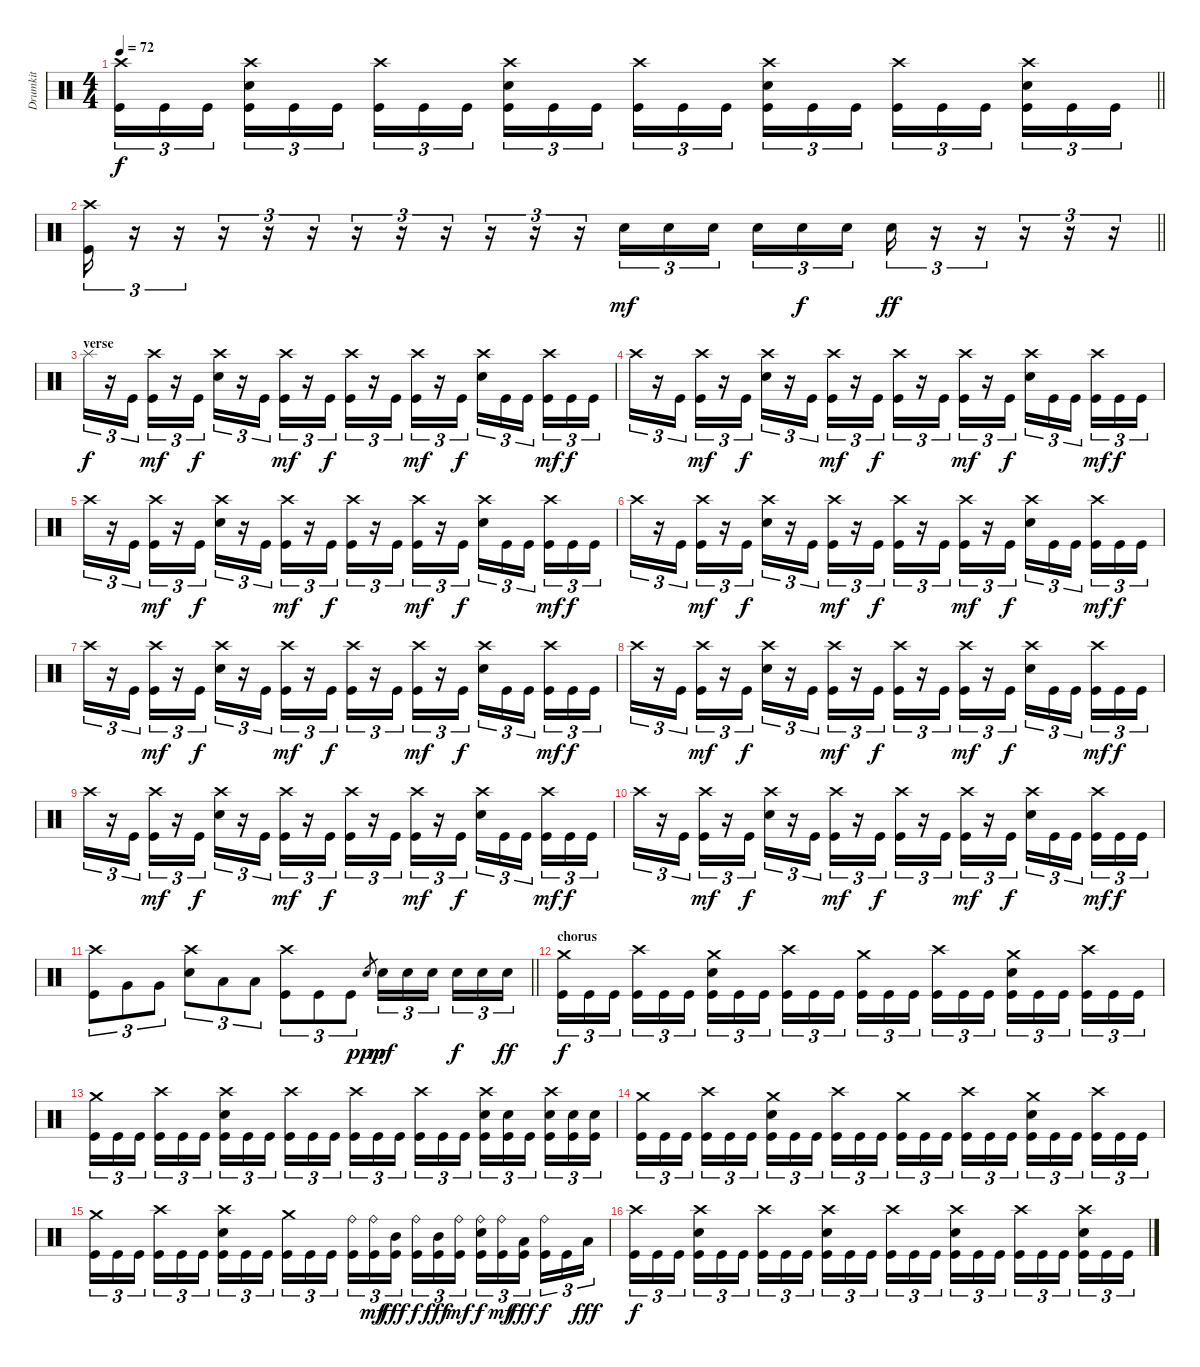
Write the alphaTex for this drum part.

\track ("Drumkit" "Drumkit") {instrument percussion}
\staff
\articulation defaults
\ts (4 4)
\tempo 72
\clef neutral
\barLineRight lightlight
\ks c
("Crash high (hit)" "Kick (hit)").16{tu (3 2) dy f} "Kick (hit)".16{tu (3 2)} "Kick (hit)".16{tu (3 2) beam splitsecondary} ("Crash high (hit)" "Snare (hit) 2" "Kick (hit)").16{tu (3 2)} "Kick (hit)".16{tu (3 2)} "Kick (hit)".16{tu (3 2)} ("Crash high (hit)" "Kick (hit)").16{tu (3 2)} "Kick (hit)".16{tu (3 2)} "Kick (hit)".16{tu (3 2) beam splitsecondary} ("Crash high (hit)" "Snare (hit) 2" "Kick (hit)").16{tu (3 2)} "Kick (hit)".16{tu (3 2)} "Kick (hit)".16{tu (3 2)} ("Crash high (hit)" "Kick (hit)").16{tu (3 2)} "Kick (hit)".16{tu (3 2)} "Kick (hit)".16{tu (3 2) beam splitsecondary} ("Crash high (hit)" "Snare (hit) 2" "Kick (hit)").16{tu (3 2)} "Kick (hit)".16{tu (3 2)} "Kick (hit)".16{tu (3 2)} ("Crash high (hit)" "Kick (hit)").16{tu (3 2)} "Kick (hit)".16{tu (3 2)} "Kick (hit)".16{tu (3 2) beam splitsecondary} ("Crash high (hit)" "Snare (hit) 2" "Kick (hit)").16{tu (3 2)} "Kick (hit)".16{tu (3 2)} "Kick (hit)".16{tu (3 2)} |
\barLineRight lightlight
("Crash high (hit)" "Kick (hit)").16{tu (3 2)} r.16{tu (3 2)} r.16{tu (3 2)} r.16{tu (3 2)} r.16{tu (3 2)} r.16{tu (3 2)} r.16{tu (3 2)} r.16{tu (3 2)} r.16{tu (3 2)} r.16{tu (3 2)} r.16{tu (3 2)} r.16{tu (3 2)} "Snare (hit) 2".16{tu (3 2) dy mf} "Snare (hit) 2".16{tu (3 2)} "Snare (hit) 2".16{tu (3 2) beam splitsecondary} "Snare (hit) 2".16{tu (3 2)} "Snare (hit) 2".16{tu (3 2) dy f} "Snare (hit) 2".16{tu (3 2)} "Snare (hit) 2".16{tu (3 2) dy ff} r.16{tu (3 2)} r.16{tu (3 2)} r.16{tu (3 2)} r.16{tu (3 2)} r.16{tu (3 2)} |
\section ("" "verse")
"Splash (hit)".16{tu (3 2) dy f} r.16{tu (3 2)} "Kick (hit)".16{tu (3 2)} ("Crash high (hit)" "Kick (hit)").16{tu (3 2) dy mf} r.16{tu (3 2)} "Kick (hit)".16{tu (3 2) dy f} ("Crash high (hit)" "Snare (hit) 2").16{tu (3 2)} r.16{tu (3 2)} "Kick (hit)".16{tu (3 2)} ("Crash high (hit)" "Kick (hit)").16{tu (3 2) dy mf} r.16{tu (3 2)} "Kick (hit)".16{tu (3 2) dy f} ("Crash high (hit)" "Kick (hit)").16{tu (3 2)} r.16{tu (3 2)} "Kick (hit)".16{tu (3 2)} ("Crash high (hit)" "Kick (hit)").16{tu (3 2) dy mf} r.16{tu (3 2)} "Kick (hit)".16{tu (3 2) dy f} ("Crash high (hit)" "Snare (hit) 2").16{tu (3 2)} "Kick (hit)".16{tu (3 2)} "Kick (hit)".16{tu (3 2) beam splitsecondary} ("Crash high (hit)" "Kick (hit)").16{tu (3 2) dy mf} "Kick (hit)".16{tu (3 2) dy f} "Kick (hit)".16{tu (3 2)} |
"Crash high (hit)".16{tu (3 2)} r.16{tu (3 2)} "Kick (hit)".16{tu (3 2)} ("Crash high (hit)" "Kick (hit)").16{tu (3 2) dy mf} r.16{tu (3 2)} "Kick (hit)".16{tu (3 2) dy f} ("Crash high (hit)" "Snare (hit) 2").16{tu (3 2)} r.16{tu (3 2)} "Kick (hit)".16{tu (3 2)} ("Crash high (hit)" "Kick (hit)").16{tu (3 2) dy mf} r.16{tu (3 2)} "Kick (hit)".16{tu (3 2) dy f} ("Crash high (hit)" "Kick (hit)").16{tu (3 2)} r.16{tu (3 2)} "Kick (hit)".16{tu (3 2)} ("Crash high (hit)" "Kick (hit)").16{tu (3 2) dy mf} r.16{tu (3 2)} "Kick (hit)".16{tu (3 2) dy f} ("Crash high (hit)" "Snare (hit) 2").16{tu (3 2)} "Kick (hit)".16{tu (3 2)} "Kick (hit)".16{tu (3 2) beam splitsecondary} ("Crash high (hit)" "Kick (hit)").16{tu (3 2) dy mf} "Kick (hit)".16{tu (3 2) dy f} "Kick (hit)".16{tu (3 2)} |
"Crash high (hit)".16{tu (3 2)} r.16{tu (3 2)} "Kick (hit)".16{tu (3 2)} ("Crash high (hit)" "Kick (hit)").16{tu (3 2) dy mf} r.16{tu (3 2)} "Kick (hit)".16{tu (3 2) dy f} ("Crash high (hit)" "Snare (hit) 2").16{tu (3 2)} r.16{tu (3 2)} "Kick (hit)".16{tu (3 2)} ("Crash high (hit)" "Kick (hit)").16{tu (3 2) dy mf} r.16{tu (3 2)} "Kick (hit)".16{tu (3 2) dy f} ("Crash high (hit)" "Kick (hit)").16{tu (3 2)} r.16{tu (3 2)} "Kick (hit)".16{tu (3 2)} ("Crash high (hit)" "Kick (hit)").16{tu (3 2) dy mf} r.16{tu (3 2)} "Kick (hit)".16{tu (3 2) dy f} ("Crash high (hit)" "Snare (hit) 2").16{tu (3 2)} "Kick (hit)".16{tu (3 2)} "Kick (hit)".16{tu (3 2) beam splitsecondary} ("Crash high (hit)" "Kick (hit)").16{tu (3 2) dy mf} "Kick (hit)".16{tu (3 2) dy f} "Kick (hit)".16{tu (3 2)} |
"Crash high (hit)".16{tu (3 2)} r.16{tu (3 2)} "Kick (hit)".16{tu (3 2)} ("Crash high (hit)" "Kick (hit)").16{tu (3 2) dy mf} r.16{tu (3 2)} "Kick (hit)".16{tu (3 2) dy f} ("Crash high (hit)" "Snare (hit) 2").16{tu (3 2)} r.16{tu (3 2)} "Kick (hit)".16{tu (3 2)} ("Crash high (hit)" "Kick (hit)").16{tu (3 2) dy mf} r.16{tu (3 2)} "Kick (hit)".16{tu (3 2) dy f} ("Crash high (hit)" "Kick (hit)").16{tu (3 2)} r.16{tu (3 2)} "Kick (hit)".16{tu (3 2)} ("Crash high (hit)" "Kick (hit)").16{tu (3 2) dy mf} r.16{tu (3 2)} "Kick (hit)".16{tu (3 2) dy f} ("Crash high (hit)" "Snare (hit) 2").16{tu (3 2)} "Kick (hit)".16{tu (3 2)} "Kick (hit)".16{tu (3 2) beam splitsecondary} ("Crash high (hit)" "Kick (hit)").16{tu (3 2) dy mf} "Kick (hit)".16{tu (3 2) dy f} "Kick (hit)".16{tu (3 2)} |
"Crash high (hit)".16{tu (3 2)} r.16{tu (3 2)} "Kick (hit)".16{tu (3 2)} ("Crash high (hit)" "Kick (hit)").16{tu (3 2) dy mf} r.16{tu (3 2)} "Kick (hit)".16{tu (3 2) dy f} ("Crash high (hit)" "Snare (hit) 2").16{tu (3 2)} r.16{tu (3 2)} "Kick (hit)".16{tu (3 2)} ("Crash high (hit)" "Kick (hit)").16{tu (3 2) dy mf} r.16{tu (3 2)} "Kick (hit)".16{tu (3 2) dy f} ("Crash high (hit)" "Kick (hit)").16{tu (3 2)} r.16{tu (3 2)} "Kick (hit)".16{tu (3 2)} ("Crash high (hit)" "Kick (hit)").16{tu (3 2) dy mf} r.16{tu (3 2)} "Kick (hit)".16{tu (3 2) dy f} ("Crash high (hit)" "Snare (hit) 2").16{tu (3 2)} "Kick (hit)".16{tu (3 2)} "Kick (hit)".16{tu (3 2) beam splitsecondary} ("Crash high (hit)" "Kick (hit)").16{tu (3 2) dy mf} "Kick (hit)".16{tu (3 2) dy f} "Kick (hit)".16{tu (3 2)} |
"Crash high (hit)".16{tu (3 2)} r.16{tu (3 2)} "Kick (hit)".16{tu (3 2)} ("Crash high (hit)" "Kick (hit)").16{tu (3 2) dy mf} r.16{tu (3 2)} "Kick (hit)".16{tu (3 2) dy f} ("Crash high (hit)" "Snare (hit) 2").16{tu (3 2)} r.16{tu (3 2)} "Kick (hit)".16{tu (3 2)} ("Crash high (hit)" "Kick (hit)").16{tu (3 2) dy mf} r.16{tu (3 2)} "Kick (hit)".16{tu (3 2) dy f} ("Crash high (hit)" "Kick (hit)").16{tu (3 2)} r.16{tu (3 2)} "Kick (hit)".16{tu (3 2)} ("Crash high (hit)" "Kick (hit)").16{tu (3 2) dy mf} r.16{tu (3 2)} "Kick (hit)".16{tu (3 2) dy f} ("Crash high (hit)" "Snare (hit) 2").16{tu (3 2)} "Kick (hit)".16{tu (3 2)} "Kick (hit)".16{tu (3 2) beam splitsecondary} ("Crash high (hit)" "Kick (hit)").16{tu (3 2) dy mf} "Kick (hit)".16{tu (3 2) dy f} "Kick (hit)".16{tu (3 2)} |
"Crash high (hit)".16{tu (3 2)} r.16{tu (3 2)} "Kick (hit)".16{tu (3 2)} ("Crash high (hit)" "Kick (hit)").16{tu (3 2) dy mf} r.16{tu (3 2)} "Kick (hit)".16{tu (3 2) dy f} ("Crash high (hit)" "Snare (hit) 2").16{tu (3 2)} r.16{tu (3 2)} "Kick (hit)".16{tu (3 2)} ("Crash high (hit)" "Kick (hit)").16{tu (3 2) dy mf} r.16{tu (3 2)} "Kick (hit)".16{tu (3 2) dy f} ("Crash high (hit)" "Kick (hit)").16{tu (3 2)} r.16{tu (3 2)} "Kick (hit)".16{tu (3 2)} ("Crash high (hit)" "Kick (hit)").16{tu (3 2) dy mf} r.16{tu (3 2)} "Kick (hit)".16{tu (3 2) dy f} ("Crash high (hit)" "Snare (hit) 2").16{tu (3 2)} "Kick (hit)".16{tu (3 2)} "Kick (hit)".16{tu (3 2) beam splitsecondary} ("Crash high (hit)" "Kick (hit)").16{tu (3 2) dy mf} "Kick (hit)".16{tu (3 2) dy f} "Kick (hit)".16{tu (3 2)} |
"Crash high (hit)".16{tu (3 2)} r.16{tu (3 2)} "Kick (hit)".16{tu (3 2)} ("Crash high (hit)" "Kick (hit)").16{tu (3 2) dy mf} r.16{tu (3 2)} "Kick (hit)".16{tu (3 2) dy f} ("Crash high (hit)" "Snare (hit) 2").16{tu (3 2)} r.16{tu (3 2)} "Kick (hit)".16{tu (3 2)} ("Crash high (hit)" "Kick (hit)").16{tu (3 2) dy mf} r.16{tu (3 2)} "Kick (hit)".16{tu (3 2) dy f} ("Crash high (hit)" "Kick (hit)").16{tu (3 2)} r.16{tu (3 2)} "Kick (hit)".16{tu (3 2)} ("Crash high (hit)" "Kick (hit)").16{tu (3 2) dy mf} r.16{tu (3 2)} "Kick (hit)".16{tu (3 2) dy f} ("Crash high (hit)" "Snare (hit) 2").16{tu (3 2)} "Kick (hit)".16{tu (3 2)} "Kick (hit)".16{tu (3 2) beam splitsecondary} ("Crash high (hit)" "Kick (hit)").16{tu (3 2) dy mf} "Kick (hit)".16{tu (3 2) dy f} "Kick (hit)".16{tu (3 2)} |
\barLineRight lightlight
("Crash high (hit)" "Kick (hit)").8{tu (3 2)} "Very Low Tom (hit)".8{tu (3 2)} "Very Low Tom (hit)".8{tu (3 2)} ("Crash high (hit)" "Snare (hit) 2").8{tu (3 2)} "Low Floor Tom (hit)".8{tu (3 2)} "Low Floor Tom (hit)".8{tu (3 2)} ("Crash high (hit)" "Kick (hit)").8{tu (3 2)} "Kick (hit)".8{tu (3 2)} "Kick (hit)".8{tu (3 2)} "Snare (hit)".8{gr dy ppp} "Snare (hit) 2".16{tu (3 2) dy mf} "Snare (hit) 2".16{tu (3 2)} "Snare (hit) 2".16{tu (3 2) beam splitsecondary} "Snare (hit) 2".16{tu (3 2) dy f} "Snare (hit) 2".16{tu (3 2)} "Snare (hit) 2".16{tu (3 2) dy ff} |
\section ("" "chorus")
("Crash medium (hit)" "Kick (hit)").16{tu (3 2) dy f} "Kick (hit)".16{tu (3 2)} "Kick (hit)".16{tu (3 2) beam splitsecondary} ("Crash high (hit)" "Kick (hit)").16{tu (3 2)} "Kick (hit)".16{tu (3 2)} "Kick (hit)".16{tu (3 2)} ("Crash medium (hit)" "Snare (hit) 2" "Kick (hit)").16{tu (3 2)} "Kick (hit)".16{tu (3 2)} "Kick (hit)".16{tu (3 2) beam splitsecondary} ("Crash high (hit)" "Kick (hit)").16{tu (3 2)} "Kick (hit)".16{tu (3 2)} "Kick (hit)".16{tu (3 2)} ("Crash medium (hit)" "Kick (hit)").16{tu (3 2)} "Kick (hit)".16{tu (3 2)} "Kick (hit)".16{tu (3 2) beam splitsecondary} ("Crash high (hit)" "Kick (hit)").16{tu (3 2)} "Kick (hit)".16{tu (3 2)} "Kick (hit)".16{tu (3 2)} ("Crash medium (hit)" "Snare (hit) 2" "Kick (hit)").16{tu (3 2)} "Kick (hit)".16{tu (3 2)} "Kick (hit)".16{tu (3 2) beam splitsecondary} ("Crash high (hit)" "Kick (hit)").16{tu (3 2)} "Kick (hit)".16{tu (3 2)} "Kick (hit)".16{tu (3 2)} |
("Crash medium (hit)" "Kick (hit)").16{tu (3 2)} "Kick (hit)".16{tu (3 2)} "Kick (hit)".16{tu (3 2) beam splitsecondary} ("Crash high (hit)" "Kick (hit)").16{tu (3 2)} "Kick (hit)".16{tu (3 2)} "Kick (hit)".16{tu (3 2)} ("Crash high (hit)" "Snare (hit) 2" "Kick (hit)").16{tu (3 2)} "Kick (hit)".16{tu (3 2)} "Kick (hit)".16{tu (3 2) beam splitsecondary} ("Crash high (hit)" "Kick (hit)").16{tu (3 2)} "Kick (hit)".16{tu (3 2)} "Kick (hit)".16{tu (3 2)} ("Crash high (hit)" "Kick (hit)").16{tu (3 2)} "Kick (hit)".16{tu (3 2)} "Kick (hit)".16{tu (3 2) beam splitsecondary} ("Crash high (hit)" "Kick (hit)").16{tu (3 2)} "Kick (hit)".16{tu (3 2)} "Kick (hit)".16{tu (3 2)} ("Crash high (hit)" "Snare (hit) 2" "Kick (hit)").16{tu (3 2)} ("Snare (hit) 2" "Kick (hit)").16{tu (3 2)} "Kick (hit)".16{tu (3 2) beam splitsecondary} ("Crash high (hit)" "Snare (hit) 2" "Kick (hit)").16{tu (3 2)} ("Snare (hit) 2" "Kick (hit)").16{tu (3 2)} ("Snare (hit) 2" "Kick (hit)").16{tu (3 2)} |
("Crash medium (hit)" "Kick (hit)").16{tu (3 2)} "Kick (hit)".16{tu (3 2)} "Kick (hit)".16{tu (3 2) beam splitsecondary} ("Crash high (hit)" "Kick (hit)").16{tu (3 2)} "Kick (hit)".16{tu (3 2)} "Kick (hit)".16{tu (3 2)} ("Crash medium (hit)" "Snare (hit) 2" "Kick (hit)").16{tu (3 2)} "Kick (hit)".16{tu (3 2)} "Kick (hit)".16{tu (3 2) beam splitsecondary} ("Crash high (hit)" "Kick (hit)").16{tu (3 2)} "Kick (hit)".16{tu (3 2)} "Kick (hit)".16{tu (3 2)} ("Crash medium (hit)" "Kick (hit)").16{tu (3 2)} "Kick (hit)".16{tu (3 2)} "Kick (hit)".16{tu (3 2) beam splitsecondary} ("Crash high (hit)" "Kick (hit)").16{tu (3 2)} "Kick (hit)".16{tu (3 2)} "Kick (hit)".16{tu (3 2)} ("Crash medium (hit)" "Snare (hit) 2" "Kick (hit)").16{tu (3 2)} "Kick (hit)".16{tu (3 2)} "Kick (hit)".16{tu (3 2) beam splitsecondary} ("Crash high (hit)" "Kick (hit)").16{tu (3 2)} "Kick (hit)".16{tu (3 2)} "Kick (hit)".16{tu (3 2)} |
("Crash medium (hit)" "Kick (hit)").16{tu (3 2)} "Kick (hit)".16{tu (3 2)} "Kick (hit)".16{tu (3 2) beam splitsecondary} ("Crash high (hit)" "Kick (hit)").16{tu (3 2)} "Kick (hit)".16{tu (3 2)} "Kick (hit)".16{tu (3 2)} ("Crash high (hit)" "Snare (hit) 2" "Kick (hit)").16{tu (3 2)} "Kick (hit)".16{tu (3 2)} "Kick (hit)".16{tu (3 2) beam splitsecondary} ("Crash medium (hit)" "Kick (hit)").16{tu (3 2)} "Kick (hit)".16{tu (3 2)} "Kick (hit)".16{tu (3 2)} ("Ride (bell)" "Kick (hit)").16{tu (3 2)} ("Ride (bell)" "Kick (hit)").16{tu (3 2) dy mf} ("Mid Tom (hit)" "Kick (hit)").16{tu (3 2) dy fff beam splitsecondary} ("Ride (bell)" "Kick (hit)").16{tu (3 2) dy f} ("Mid Tom (hit)" "Kick (hit)").16{tu (3 2) dy fff} ("Ride (bell)" "Kick (hit)").16{tu (3 2) dy mf} ("Ride (bell)" "Snare (hit) 2" "Kick (hit)").16{tu (3 2) dy f} ("Ride (bell)" "Kick (hit)").16{tu (3 2) dy mf} ("Low Tom (hit)" "Kick (hit)").16{tu (3 2) dy fff beam splitsecondary} ("Ride (bell)" "Kick (hit)").16{tu (3 2) dy f} "Kick (hit)".16{tu (3 2)} "Low Floor Tom (hit)".16{tu (3 2) dy fff} |
("Crash high (hit)" "Kick (hit)").16{tu (3 2) dy f} "Kick (hit)".16{tu (3 2)} "Kick (hit)".16{tu (3 2) beam splitsecondary} ("Crash high (hit)" "Snare (hit) 2" "Kick (hit)").16{tu (3 2)} "Kick (hit)".16{tu (3 2)} "Kick (hit)".16{tu (3 2)} ("Crash high (hit)" "Kick (hit)").16{tu (3 2)} "Kick (hit)".16{tu (3 2)} "Kick (hit)".16{tu (3 2) beam splitsecondary} ("Crash high (hit)" "Snare (hit) 2" "Kick (hit)").16{tu (3 2)} "Kick (hit)".16{tu (3 2)} "Kick (hit)".16{tu (3 2)} ("Crash high (hit)" "Kick (hit)").16{tu (3 2)} "Kick (hit)".16{tu (3 2)} "Kick (hit)".16{tu (3 2) beam splitsecondary} ("Crash high (hit)" "Snare (hit) 2" "Kick (hit)").16{tu (3 2)} "Kick (hit)".16{tu (3 2)} "Kick (hit)".16{tu (3 2)} ("Crash high (hit)" "Kick (hit)").16{tu (3 2)} "Kick (hit)".16{tu (3 2)} "Kick (hit)".16{tu (3 2) beam splitsecondary} ("Crash high (hit)" "Snare (hit) 2" "Kick (hit)").16{tu (3 2)} "Kick (hit)".16{tu (3 2)} "Kick (hit)".16{tu (3 2)}
